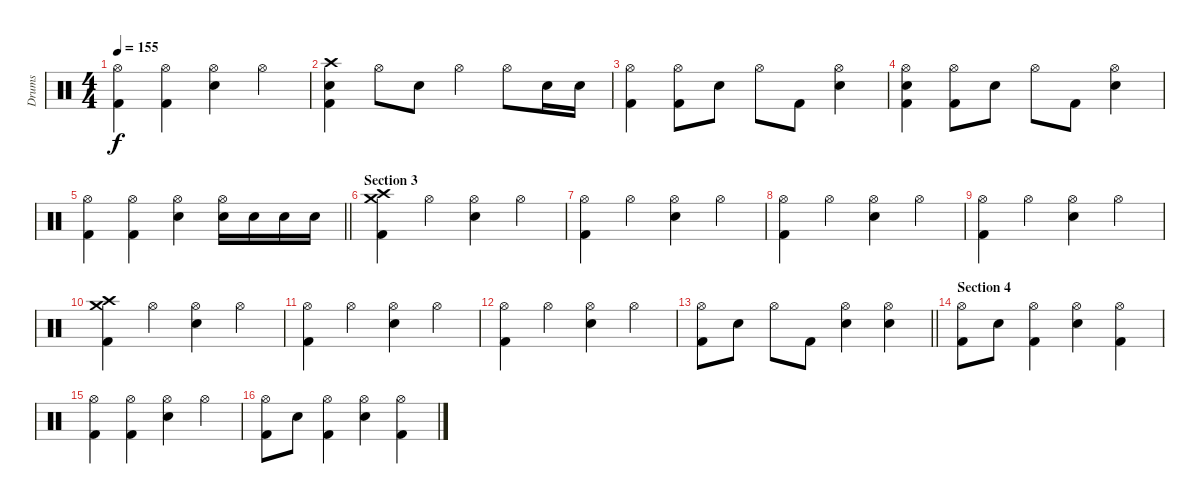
\track ("Drums" "Drums") {instrument percussion}
\staff {score}
\articulation defaults
\ts (4 4)
\tempo 155
\clef neutral
\ks c
("Hi-Hat (open)" "Kick (hit) 2").4{dy f} ("Hi-Hat (open)" "Kick (hit) 2").4 ("Hi-Hat (open)" "Snare (hit) 2").4 "Hi-Hat (open)".4 |
("Crash high (hit)" "Snare (hit) 2" "Kick (hit) 2").4 "Hi-Hat (open)".8 "Snare (hit) 2".8 "Hi-Hat (open)".4 "Hi-Hat (open)".8 "Snare (hit) 2".16 "Snare (hit) 2".16 |
("Hi-Hat (open)" "Kick (hit) 2").4 ("Hi-Hat (open)" "Kick (hit) 2").8 "Snare (hit) 2".8 "Hi-Hat (open)".8 "Kick (hit) 2".8 ("Hi-Hat (open)" "Snare (hit) 2").4 |
("Hi-Hat (open)" "Snare (hit) 2" "Kick (hit) 2").4 ("Hi-Hat (open)" "Kick (hit) 2").8 "Snare (hit) 2".8 "Hi-Hat (open)".8 "Kick (hit) 2".8 ("Hi-Hat (open)" "Snare (hit) 2").4 |
\barLineRight lightlight
("Hi-Hat (open)" "Kick (hit) 2").4 ("Hi-Hat (open)" "Kick (hit) 2").4 ("Hi-Hat (open)" "Snare (hit) 2").4 ("Hi-Hat (open)" "Snare (hit) 2").16 "Snare (hit) 2".16 "Snare (hit) 2".16 "Snare (hit) 2".16 |
\section ("" "Section 3")
("Crash high (hit)" "Crash medium (hit)" "Kick (hit) 2").4 "Hi-Hat (open)".4 ("Hi-Hat (open)" "Snare (hit) 2").4 "Hi-Hat (open)".4 |
("Hi-Hat (open)" "Kick (hit) 2").4 "Hi-Hat (open)".4 ("Hi-Hat (open)" "Snare (hit) 2").4 "Hi-Hat (open)".4 |
("Hi-Hat (open)" "Kick (hit) 2").4 "Hi-Hat (open)".4 ("Hi-Hat (open)" "Snare (hit) 2").4 "Hi-Hat (open)".4 |
("Hi-Hat (open)" "Kick (hit) 2").4 "Hi-Hat (open)".4 ("Hi-Hat (open)" "Snare (hit) 2").4 "Hi-Hat (open)".4 |
("Crash high (hit)" "Crash medium (hit)" "Kick (hit) 2").4 "Hi-Hat (open)".4 ("Hi-Hat (open)" "Snare (hit) 2").4 "Hi-Hat (open)".4 |
("Hi-Hat (open)" "Kick (hit) 2").4 "Hi-Hat (open)".4 ("Hi-Hat (open)" "Snare (hit) 2").4 "Hi-Hat (open)".4 |
("Hi-Hat (open)" "Kick (hit) 2").4 "Hi-Hat (open)".4 ("Hi-Hat (open)" "Snare (hit) 2").4 "Hi-Hat (open)".4 |
\barLineRight lightlight
("Hi-Hat (open)" "Kick (hit) 2").8 "Snare (hit) 2".8 "Hi-Hat (open)".8 "Kick (hit) 2".8 ("Hi-Hat (open)" "Snare (hit) 2").4 ("Hi-Hat (open)" "Snare (hit) 2").4 |
\section ("" "Section 4")
("Hi-Hat (open)" "Kick (hit) 2").8 "Snare (hit) 2".8 ("Hi-Hat (open)" "Kick (hit) 2").4 ("Hi-Hat (open)" "Snare (hit) 2").4 ("Hi-Hat (open)" "Kick (hit) 2").4 |
("Hi-Hat (open)" "Kick (hit) 2").4 ("Hi-Hat (open)" "Kick (hit) 2").4 ("Hi-Hat (open)" "Snare (hit) 2").4 "Hi-Hat (open)".4 |
("Hi-Hat (open)" "Kick (hit) 2").8 "Snare (hit) 2".8 ("Hi-Hat (open)" "Kick (hit) 2").4 ("Hi-Hat (open)" "Snare (hit) 2").4 ("Hi-Hat (open)" "Kick (hit) 2").4
